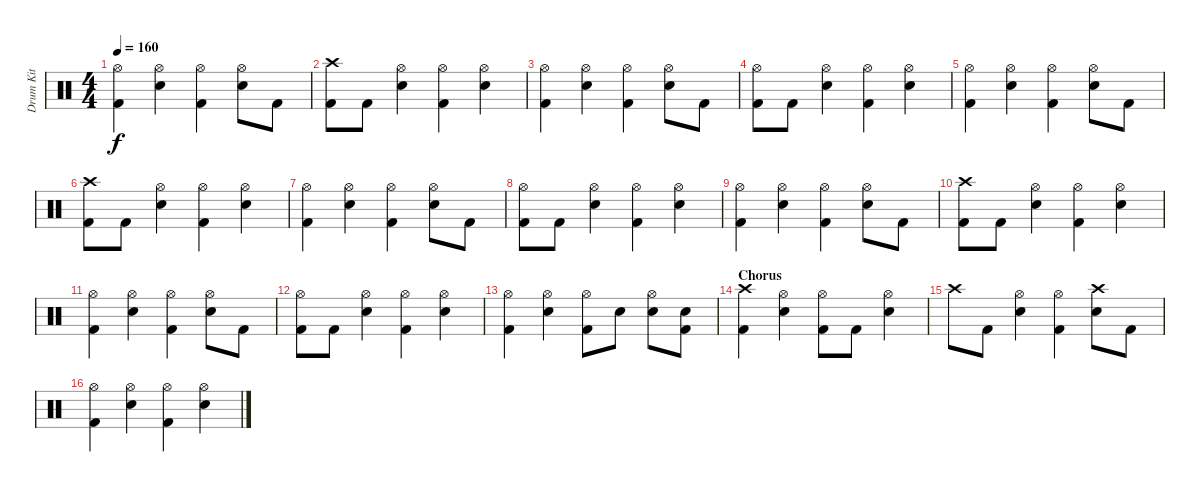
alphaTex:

\track ("Drum Kit" "Drum Kit") {instrument percussion}
\staff {score}
\articulation defaults
\ts (4 4)
\tempo 160
\clef neutral
\ks c
("Hi-Hat (open)" "Kick (hit) 2").4{dy f} ("Hi-Hat (open)" "Electric Snare (hit)").4 ("Hi-Hat (open)" "Kick (hit) 2").4 ("Hi-Hat (open)" "Electric Snare (hit)").8 "Kick (hit) 2".8 |
("Crash high (hit)" "Kick (hit) 2").8 "Kick (hit) 2".8 ("Hi-Hat (open)" "Electric Snare (hit)").4 ("Hi-Hat (open)" "Kick (hit) 2").4 ("Hi-Hat (open)" "Electric Snare (hit)").4 |
("Hi-Hat (open)" "Kick (hit) 2").4 ("Hi-Hat (open)" "Electric Snare (hit)").4 ("Hi-Hat (open)" "Kick (hit) 2").4 ("Hi-Hat (open)" "Electric Snare (hit)").8 "Kick (hit) 2".8 |
("Hi-Hat (open)" "Kick (hit) 2").8 "Kick (hit) 2".8 ("Hi-Hat (open)" "Electric Snare (hit)").4 ("Hi-Hat (open)" "Kick (hit) 2").4 ("Hi-Hat (open)" "Electric Snare (hit)").4 |
("Hi-Hat (open)" "Kick (hit) 2").4 ("Hi-Hat (open)" "Electric Snare (hit)").4 ("Hi-Hat (open)" "Kick (hit) 2").4 ("Hi-Hat (open)" "Electric Snare (hit)").8 "Kick (hit) 2".8 |
("Crash high (hit)" "Kick (hit) 2").8 "Kick (hit) 2".8 ("Hi-Hat (open)" "Electric Snare (hit)").4 ("Hi-Hat (open)" "Kick (hit) 2").4 ("Hi-Hat (open)" "Electric Snare (hit)").4 |
("Hi-Hat (open)" "Kick (hit) 2").4 ("Hi-Hat (open)" "Electric Snare (hit)").4 ("Hi-Hat (open)" "Kick (hit) 2").4 ("Hi-Hat (open)" "Electric Snare (hit)").8 "Kick (hit) 2".8 |
("Hi-Hat (open)" "Kick (hit) 2").8 "Kick (hit) 2".8 ("Hi-Hat (open)" "Electric Snare (hit)").4 ("Hi-Hat (open)" "Kick (hit) 2").4 ("Hi-Hat (open)" "Electric Snare (hit)").4 |
("Hi-Hat (open)" "Kick (hit) 2").4 ("Hi-Hat (open)" "Electric Snare (hit)").4 ("Hi-Hat (open)" "Kick (hit) 2").4 ("Hi-Hat (open)" "Electric Snare (hit)").8 "Kick (hit) 2".8 |
("Crash high (hit)" "Kick (hit) 2").8 "Kick (hit) 2".8 ("Hi-Hat (open)" "Electric Snare (hit)").4 ("Hi-Hat (open)" "Kick (hit) 2").4 ("Hi-Hat (open)" "Electric Snare (hit)").4 |
("Hi-Hat (open)" "Kick (hit) 2").4 ("Hi-Hat (open)" "Electric Snare (hit)").4 ("Hi-Hat (open)" "Kick (hit) 2").4 ("Hi-Hat (open)" "Electric Snare (hit)").8 "Kick (hit) 2".8 |
("Hi-Hat (open)" "Kick (hit) 2").8 "Kick (hit) 2".8 ("Hi-Hat (open)" "Electric Snare (hit)").4 ("Hi-Hat (open)" "Kick (hit) 2").4 ("Hi-Hat (open)" "Electric Snare (hit)").4 |
("Hi-Hat (open)" "Kick (hit) 2").4 ("Hi-Hat (open)" "Electric Snare (hit)").4 ("Hi-Hat (open)" "Kick (hit) 2").8 "Electric Snare (hit)".8 ("Hi-Hat (open)" "Electric Snare (hit)").8 ("Electric Snare (hit)" "Kick (hit) 2").8 |
\section ("" "Chorus")
("Crash high (hit)" "Kick (hit) 2").4 ("Hi-Hat (open)" "Electric Snare (hit)").4 ("Hi-Hat (open)" "Kick (hit) 2").8 "Kick (hit) 2".8 ("Hi-Hat (open)" "Electric Snare (hit)").4 |
"Crash high (hit)".8 "Kick (hit) 2".8 ("Hi-Hat (open)" "Electric Snare (hit)").4 ("Hi-Hat (open)" "Kick (hit) 2").4 ("Crash high (hit)" "Electric Snare (hit)").8 "Kick (hit) 2".8 |
("Hi-Hat (open)" "Kick (hit) 2").4 ("Hi-Hat (open)" "Electric Snare (hit)").4 ("Hi-Hat (open)" "Kick (hit) 2").4 ("Hi-Hat (open)" "Electric Snare (hit)").4
